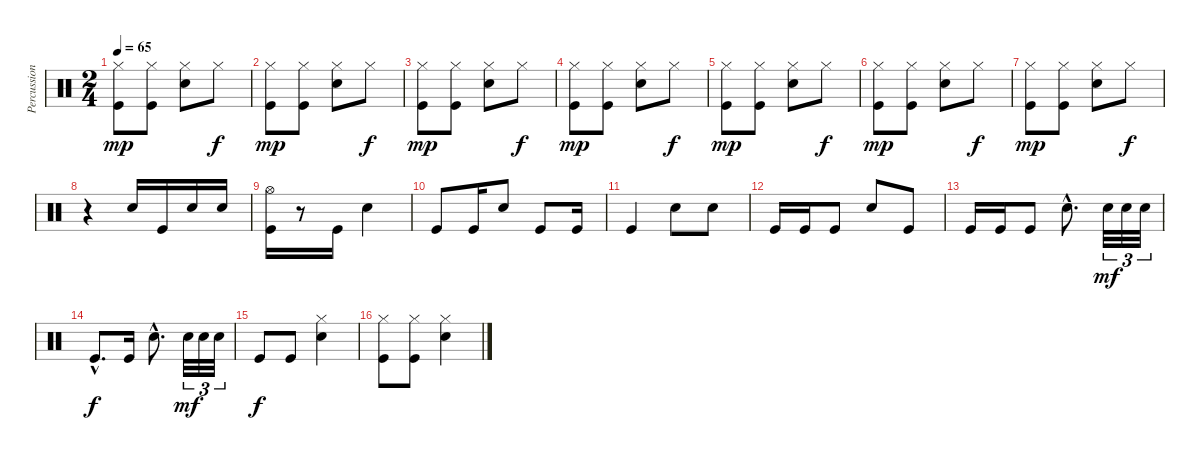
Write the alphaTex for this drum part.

\track ("Percussions" "Percussion") {instrument percussion}
\staff {score}
\articulation defaults
\ts (2 4)
\tempo 65
\clef neutral
\ks c
("Hi-Hat (closed)" "Kick (hit)").8{dy mp} ("Hi-Hat (closed)" "Kick (hit)").8 ("Hi-Hat (closed)" "Electric Snare (hit)").8 "Hi-Hat (closed)".8{dy f} |
("Hi-Hat (closed)" "Kick (hit)").8{dy mp} ("Hi-Hat (closed)" "Kick (hit)").8 ("Hi-Hat (closed)" "Electric Snare (hit)").8 "Hi-Hat (closed)".8{dy f} |
("Hi-Hat (closed)" "Kick (hit)").8{dy mp} ("Hi-Hat (closed)" "Kick (hit)").8 ("Hi-Hat (closed)" "Electric Snare (hit)").8 "Hi-Hat (closed)".8{dy f} |
("Hi-Hat (closed)" "Kick (hit)").8{dy mp} ("Hi-Hat (closed)" "Kick (hit)").8 ("Hi-Hat (closed)" "Electric Snare (hit)").8 "Hi-Hat (closed)".8{dy f} |
("Hi-Hat (closed)" "Kick (hit)").8{dy mp} ("Hi-Hat (closed)" "Kick (hit)").8 ("Hi-Hat (closed)" "Electric Snare (hit)").8 "Hi-Hat (closed)".8{dy f} |
("Hi-Hat (closed)" "Kick (hit)").8{dy mp} ("Hi-Hat (closed)" "Kick (hit)").8 ("Hi-Hat (closed)" "Electric Snare (hit)").8 "Hi-Hat (closed)".8{dy f} |
("Hi-Hat (closed)" "Kick (hit)").8{dy mp} ("Hi-Hat (closed)" "Kick (hit)").8 ("Hi-Hat (closed)" "Electric Snare (hit)").8 "Hi-Hat (closed)".8{dy f} |
r.4 "Electric Snare (hit)".16 "Kick (hit)".16 "Electric Snare (hit)".16 "Electric Snare (hit)".16 |
("Hi-Hat (open)" "Kick (hit)").16 r.8 "Kick (hit)".16 "Electric Snare (hit)".4 |
"Kick (hit)".8 "Kick (hit)".16 "Electric Snare (hit)".8 "Kick (hit)".8 "Kick (hit)".16 |
"Kick (hit)".4 "Electric Snare (hit)".8 "Electric Snare (hit)".8 |
"Kick (hit)".16 "Kick (hit)".16 "Kick (hit)".8 "Electric Snare (hit)".8 "Kick (hit)".8 |
"Kick (hit)".16 "Kick (hit)".16 "Kick (hit)".8 "Electric Snare (hit)"{hac}.8{d} "Electric Snare (hit)".32{tu (3 2) dy mf} "Electric Snare (hit)".32{tu (3 2)} "Electric Snare (hit)".32{tu (3 2)} |
"Kick (hit)"{hac}.8{d dy f} "Kick (hit)".16 "Electric Snare (hit)"{hac}.8{d} "Electric Snare (hit)".32{tu (3 2) dy mf} "Electric Snare (hit)".32{tu (3 2)} "Electric Snare (hit)".32{tu (3 2)} |
"Kick (hit)".8{dy f} "Kick (hit)".8 ("Hi-Hat (closed)" "Electric Snare (hit)").4 |
("Hi-Hat (closed)" "Kick (hit)").8 ("Hi-Hat (closed)" "Kick (hit)").8 ("Hi-Hat (closed)" "Electric Snare (hit)").4
